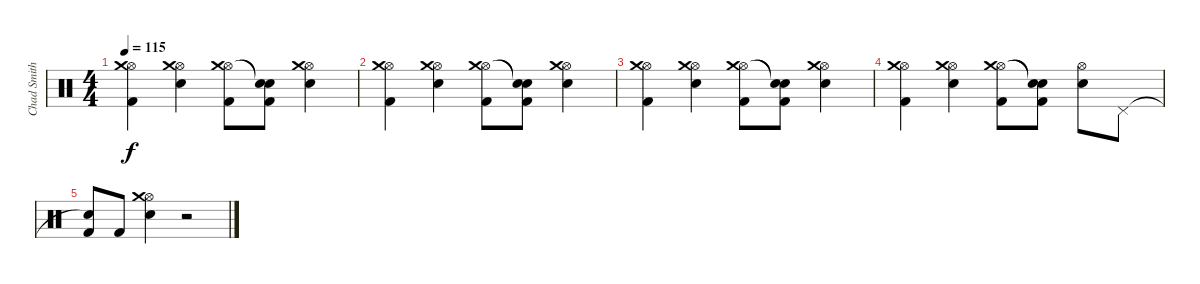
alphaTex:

\track ("Chad Smith" "Chad Smith") {instrument percussion}
\staff {score}
\articulation defaults
\ts (4 4)
\tempo 115
\clef neutral
\ks c
("Hi-Hat (open)" "Crash medium (hit)" "Kick (hit) 2").4{dy f} ("Hi-Hat (open)" "Crash medium (hit)" "Electric Snare (hit)").4 ("Hi-Hat (open)" "Crash medium (hit)" "Kick (hit) 2").8 ("Snare (hit)"{t} "Snare (hit)"{t} "Kick (hit) 2").8 ("Hi-Hat (open)" "Crash medium (hit)" "Electric Snare (hit)").4 |
("Hi-Hat (open)" "Crash medium (hit)" "Kick (hit) 2").4 ("Hi-Hat (open)" "Crash medium (hit)" "Electric Snare (hit)").4 ("Hi-Hat (open)" "Crash medium (hit)" "Kick (hit) 2").8 ("Snare (hit)"{t} "Snare (hit)"{t} "Kick (hit) 2").8 ("Hi-Hat (open)" "Crash medium (hit)" "Electric Snare (hit)").4 |
("Hi-Hat (open)" "Crash medium (hit)" "Kick (hit) 2").4 ("Hi-Hat (open)" "Crash medium (hit)" "Electric Snare (hit)").4 ("Hi-Hat (open)" "Crash medium (hit)" "Kick (hit) 2").8 ("Snare (hit)"{t} "Snare (hit)"{t} "Kick (hit) 2").8 ("Hi-Hat (open)" "Crash medium (hit)" "Electric Snare (hit)").4 |
("Hi-Hat (open)" "Crash medium (hit)" "Kick (hit) 2").4 ("Hi-Hat (open)" "Crash medium (hit)" "Electric Snare (hit)").4 ("Hi-Hat (open)" "Crash medium (hit)" "Kick (hit) 2").8 ("Snare (hit)"{t} "Snare (hit)"{t} "Kick (hit) 2").8 ("Hi-Hat (open)" "Electric Snare (hit)").8 "Pedal Hi-Hat (hit)".8 |
("Snare (hit)"{t} "Kick (hit) 2").8 "Kick (hit) 2".8 ("Hi-Hat (open)" "Crash medium (hit)" "Electric Snare (hit)").4 r.2
